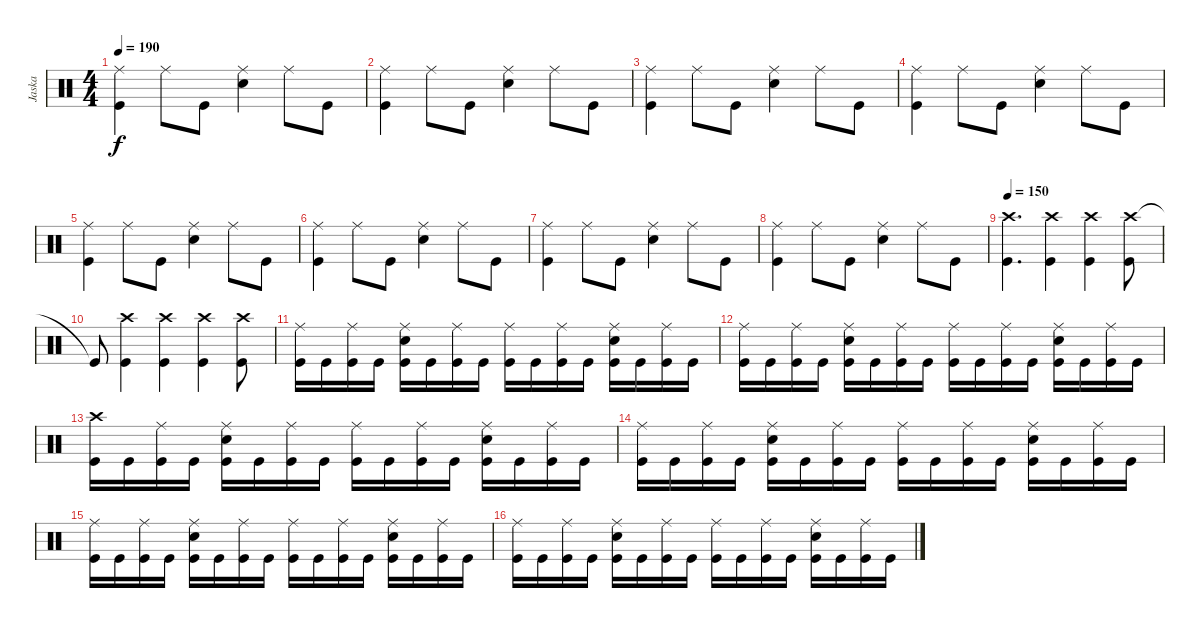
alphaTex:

\track ("Jaska" "Jaska") {instrument percussion}
\staff {score}
\articulation defaults
\ts (4 4)
\tempo 190
\clef neutral
\ks c
("Ride (middle)" "Kick (hit)").4{dy f} "Ride (middle)".8 "Kick (hit)".8 ("Ride (middle)" "Snare (hit) 2").4 "Ride (middle)".8 "Kick (hit)".8 |
("Ride (middle)" "Kick (hit)").4 "Ride (middle)".8 "Kick (hit)".8 ("Ride (middle)" "Snare (hit) 2").4 "Ride (middle)".8 "Kick (hit)".8 |
("Ride (middle)" "Kick (hit)").4 "Ride (middle)".8 "Kick (hit)".8 ("Ride (middle)" "Snare (hit) 2").4 "Ride (middle)".8 "Kick (hit)".8 |
("Ride (middle)" "Kick (hit)").4 "Ride (middle)".8 "Kick (hit)".8 ("Ride (middle)" "Snare (hit) 2").4 "Ride (middle)".8 "Kick (hit)".8 |
("Ride (middle)" "Kick (hit)").4 "Ride (middle)".8 "Kick (hit)".8 ("Ride (middle)" "Snare (hit) 2").4 "Ride (middle)".8 "Kick (hit)".8 |
("Ride (middle)" "Kick (hit)").4 "Ride (middle)".8 "Kick (hit)".8 ("Ride (middle)" "Snare (hit) 2").4 "Ride (middle)".8 "Kick (hit)".8 |
("Ride (middle)" "Kick (hit)").4 "Ride (middle)".8 "Kick (hit)".8 ("Ride (middle)" "Snare (hit) 2").4 "Ride (middle)".8 "Kick (hit)".8 |
("Ride (middle)" "Kick (hit)").4 "Ride (middle)".8 "Kick (hit)".8 ("Ride (middle)" "Snare (hit) 2").4 "Ride (middle)".8 "Kick (hit)".8 |
\tempo 150
("Crash high (hit)" "Kick (hit)").4{d} ("Crash high (hit)" "Kick (hit)").4 ("Crash high (hit)" "Kick (hit)").4 ("Crash high (hit)" "Kick (hit)").8 |
"Kick (hit)"{t}.8 ("Crash high (hit)" "Kick (hit)").4 ("Crash high (hit)" "Kick (hit)").4 ("Crash high (hit)" "Kick (hit)").4 ("Crash high (hit)" "Kick (hit)").8 |
("Ride (middle)" "Kick (hit)").16 "Kick (hit)".16 ("Ride (middle)" "Kick (hit)").16 "Kick (hit)".16 ("Ride (middle)" "Snare (hit) 2" "Kick (hit)").16 "Kick (hit)".16 ("Ride (middle)" "Kick (hit)").16 "Kick (hit)".16 ("Ride (middle)" "Kick (hit)").16 "Kick (hit)".16 ("Ride (middle)" "Kick (hit)").16 "Kick (hit)".16 ("Ride (middle)" "Snare (hit) 2" "Kick (hit)").16 "Kick (hit)".16 ("Ride (middle)" "Kick (hit)").16 "Kick (hit)".16 |
("Ride (middle)" "Kick (hit)").16 "Kick (hit)".16 ("Ride (middle)" "Kick (hit)").16 "Kick (hit)".16 ("Ride (middle)" "Snare (hit) 2" "Kick (hit)").16 "Kick (hit)".16 ("Ride (middle)" "Kick (hit)").16 "Kick (hit)".16 ("Ride (middle)" "Kick (hit)").16 "Kick (hit)".16 ("Ride (middle)" "Kick (hit)").16 "Kick (hit)".16 ("Ride (middle)" "Snare (hit) 2" "Kick (hit)").16 "Kick (hit)".16 ("Ride (middle)" "Kick (hit)").16 "Kick (hit)".16 |
("Crash high (hit)" "Kick (hit)").16 "Kick (hit)".16 ("Ride (middle)" "Kick (hit)").16 "Kick (hit)".16 ("Ride (middle)" "Snare (hit) 2" "Kick (hit)").16 "Kick (hit)".16 ("Ride (middle)" "Kick (hit)").16 "Kick (hit)".16 ("Ride (middle)" "Kick (hit)").16 "Kick (hit)".16 ("Ride (middle)" "Kick (hit)").16 "Kick (hit)".16 ("Ride (middle)" "Snare (hit) 2" "Kick (hit)").16 "Kick (hit)".16 ("Ride (middle)" "Kick (hit)").16 "Kick (hit)".16 |
("Ride (middle)" "Kick (hit)").16 "Kick (hit)".16 ("Ride (middle)" "Kick (hit)").16 "Kick (hit)".16 ("Ride (middle)" "Snare (hit) 2" "Kick (hit)").16 "Kick (hit)".16 ("Ride (middle)" "Kick (hit)").16 "Kick (hit)".16 ("Ride (middle)" "Kick (hit)").16 "Kick (hit)".16 ("Ride (middle)" "Kick (hit)").16 "Kick (hit)".16 ("Ride (middle)" "Snare (hit) 2" "Kick (hit)").16 "Kick (hit)".16 ("Ride (middle)" "Kick (hit)").16 "Kick (hit)".16 |
("Ride (middle)" "Kick (hit)").16 "Kick (hit)".16 ("Ride (middle)" "Kick (hit)").16 "Kick (hit)".16 ("Ride (middle)" "Snare (hit) 2" "Kick (hit)").16 "Kick (hit)".16 ("Ride (middle)" "Kick (hit)").16 "Kick (hit)".16 ("Ride (middle)" "Kick (hit)").16 "Kick (hit)".16 ("Ride (middle)" "Kick (hit)").16 "Kick (hit)".16 ("Ride (middle)" "Snare (hit) 2" "Kick (hit)").16 "Kick (hit)".16 ("Ride (middle)" "Kick (hit)").16 "Kick (hit)".16 |
("Ride (middle)" "Kick (hit)").16 "Kick (hit)".16 ("Ride (middle)" "Kick (hit)").16 "Kick (hit)".16 ("Ride (middle)" "Snare (hit) 2" "Kick (hit)").16 "Kick (hit)".16 ("Ride (middle)" "Kick (hit)").16 "Kick (hit)".16 ("Ride (middle)" "Kick (hit)").16 "Kick (hit)".16 ("Ride (middle)" "Kick (hit)").16 "Kick (hit)".16 ("Ride (middle)" "Snare (hit) 2" "Kick (hit)").16 "Kick (hit)".16 ("Ride (middle)" "Kick (hit)").16 "Kick (hit)".16
